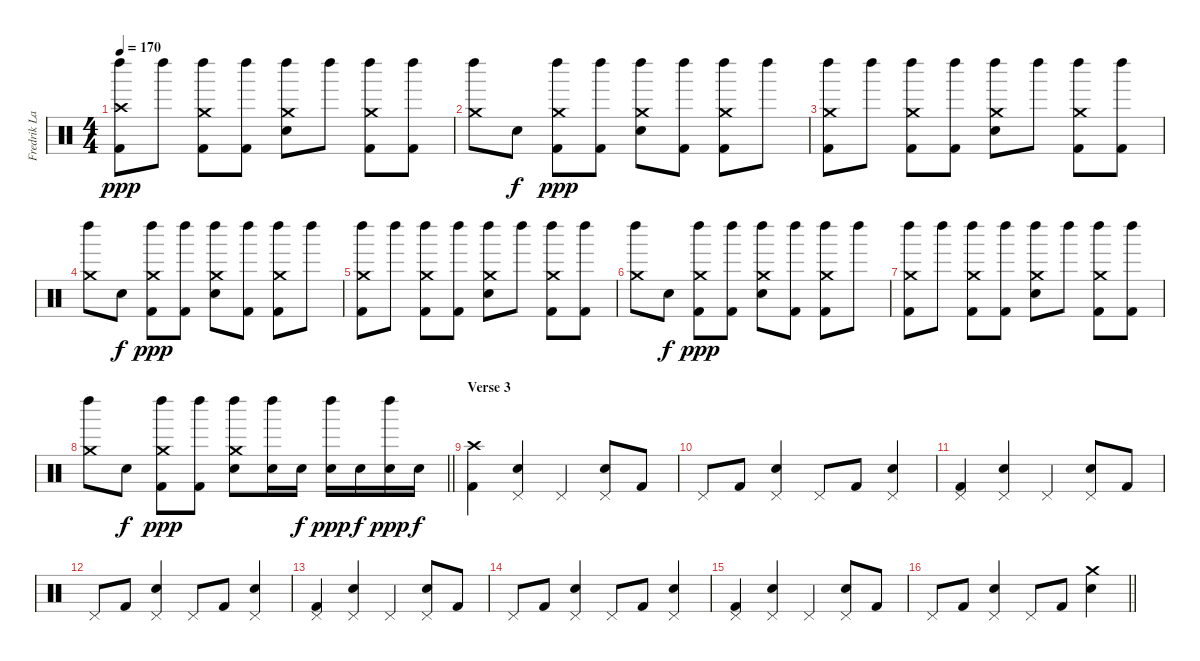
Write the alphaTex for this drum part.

\track ("Fredrik Larzon - Percussion" "Fredrik La") {instrument percussion}
\staff {score}
\articulation defaults
\ts (4 4)
\tempo 170
\clef neutral
\ks c
("Crash high (hit)" "Left Maraca (hit)" "Kick (hit) 2").8{dy ppp} "Left Maraca (hit)".8 ("Crash medium (hit)" "Left Maraca (hit)" "Kick (hit) 2").8 ("Left Maraca (hit)" "Kick (hit) 2").8 ("Crash medium (hit)" "Left Maraca (hit)" "Electric Snare (hit)").8 "Left Maraca (hit)".8 ("Crash medium (hit)" "Left Maraca (hit)" "Kick (hit) 2").8 ("Left Maraca (hit)" "Kick (hit) 2").8 |
("Crash medium (hit)" "Left Maraca (hit)").8 "Electric Snare (hit)".8{dy f} ("Crash medium (hit)" "Left Maraca (hit)" "Kick (hit) 2").8{dy ppp} ("Left Maraca (hit)" "Kick (hit) 2").8 ("Crash medium (hit)" "Left Maraca (hit)" "Electric Snare (hit)").8 ("Left Maraca (hit)" "Kick (hit) 2").8 ("Crash medium (hit)" "Left Maraca (hit)" "Kick (hit) 2").8 "Left Maraca (hit)".8 |
("Crash medium (hit)" "Left Maraca (hit)" "Kick (hit) 2").8 "Left Maraca (hit)".8 ("Crash medium (hit)" "Left Maraca (hit)" "Kick (hit) 2").8 ("Left Maraca (hit)" "Kick (hit) 2").8 ("Crash medium (hit)" "Left Maraca (hit)" "Electric Snare (hit)").8 "Left Maraca (hit)".8 ("Crash medium (hit)" "Left Maraca (hit)" "Kick (hit) 2").8 ("Left Maraca (hit)" "Kick (hit) 2").8 |
("Crash medium (hit)" "Left Maraca (hit)").8 "Electric Snare (hit)".8{dy f} ("Crash medium (hit)" "Left Maraca (hit)" "Kick (hit) 2").8{dy ppp} ("Left Maraca (hit)" "Kick (hit) 2").8 ("Crash medium (hit)" "Left Maraca (hit)" "Electric Snare (hit)").8 ("Left Maraca (hit)" "Kick (hit) 2").8 ("Crash medium (hit)" "Left Maraca (hit)" "Kick (hit) 2").8 "Left Maraca (hit)".8 |
("Crash medium (hit)" "Left Maraca (hit)" "Kick (hit) 2").8 "Left Maraca (hit)".8 ("Crash medium (hit)" "Left Maraca (hit)" "Kick (hit) 2").8 ("Left Maraca (hit)" "Kick (hit) 2").8 ("Crash medium (hit)" "Left Maraca (hit)" "Electric Snare (hit)").8 "Left Maraca (hit)".8 ("Crash medium (hit)" "Left Maraca (hit)" "Kick (hit) 2").8 ("Left Maraca (hit)" "Kick (hit) 2").8 |
("Crash medium (hit)" "Left Maraca (hit)").8 "Electric Snare (hit)".8{dy f} ("Crash medium (hit)" "Left Maraca (hit)" "Kick (hit) 2").8{dy ppp} ("Left Maraca (hit)" "Kick (hit) 2").8 ("Crash medium (hit)" "Left Maraca (hit)" "Electric Snare (hit)").8 ("Left Maraca (hit)" "Kick (hit) 2").8 ("Crash medium (hit)" "Left Maraca (hit)" "Kick (hit) 2").8 "Left Maraca (hit)".8 |
("Crash medium (hit)" "Left Maraca (hit)" "Kick (hit) 2").8 "Left Maraca (hit)".8 ("Crash medium (hit)" "Left Maraca (hit)" "Kick (hit) 2").8 ("Left Maraca (hit)" "Kick (hit) 2").8 ("Crash medium (hit)" "Left Maraca (hit)" "Electric Snare (hit)").8 "Left Maraca (hit)".8 ("Crash medium (hit)" "Left Maraca (hit)" "Kick (hit) 2").8 ("Left Maraca (hit)" "Kick (hit) 2").8 |
\barLineRight lightlight
("Crash medium (hit)" "Left Maraca (hit)").8 "Electric Snare (hit)".8{dy f} ("Crash medium (hit)" "Left Maraca (hit)" "Kick (hit) 2").8{dy ppp} ("Left Maraca (hit)" "Kick (hit) 2").8 ("Crash medium (hit)" "Left Maraca (hit)" "Electric Snare (hit)").8 ("Left Maraca (hit)" "Electric Snare (hit)").16 "Electric Snare (hit)".16{dy f} ("Left Maraca (hit)" "Electric Snare (hit)").16{dy ppp} "Electric Snare (hit)".16{dy f} ("Left Maraca (hit)" "Electric Snare (hit)").16{dy ppp} "Electric Snare (hit)".16{dy f} |
\section ("" "Verse 3")
("Crash high (hit)" "Kick (hit) 2").4 ("Pedal Hi-Hat (hit)" "Electric Snare (hit)").4 "Pedal Hi-Hat (hit)".4 ("Pedal Hi-Hat (hit)" "Electric Snare (hit)").8 "Kick (hit) 2".8 |
"Pedal Hi-Hat (hit)".8 "Kick (hit) 2".8 ("Pedal Hi-Hat (hit)" "Electric Snare (hit)").4 "Pedal Hi-Hat (hit)".8 "Kick (hit) 2".8 ("Pedal Hi-Hat (hit)" "Electric Snare (hit)").4 |
("Pedal Hi-Hat (hit)" "Kick (hit) 2").4 ("Pedal Hi-Hat (hit)" "Electric Snare (hit)").4 "Pedal Hi-Hat (hit)".4 ("Pedal Hi-Hat (hit)" "Electric Snare (hit)").8 "Kick (hit) 2".8 |
"Pedal Hi-Hat (hit)".8 "Kick (hit) 2".8 ("Pedal Hi-Hat (hit)" "Electric Snare (hit)").4 "Pedal Hi-Hat (hit)".8 "Kick (hit) 2".8 ("Pedal Hi-Hat (hit)" "Electric Snare (hit)").4 |
("Pedal Hi-Hat (hit)" "Kick (hit) 2").4 ("Pedal Hi-Hat (hit)" "Electric Snare (hit)").4 "Pedal Hi-Hat (hit)".4 ("Pedal Hi-Hat (hit)" "Electric Snare (hit)").8 "Kick (hit) 2".8 |
"Pedal Hi-Hat (hit)".8 "Kick (hit) 2".8 ("Pedal Hi-Hat (hit)" "Electric Snare (hit)").4 "Pedal Hi-Hat (hit)".8 "Kick (hit) 2".8 ("Pedal Hi-Hat (hit)" "Electric Snare (hit)").4 |
("Pedal Hi-Hat (hit)" "Kick (hit) 2").4 ("Pedal Hi-Hat (hit)" "Electric Snare (hit)").4 "Pedal Hi-Hat (hit)".4 ("Pedal Hi-Hat (hit)" "Electric Snare (hit)").8 "Kick (hit) 2".8 |
\barLineRight lightlight "Pedal Hi-Hat (hit)".8 "Kick (hit) 2".8
("Pedal Hi-Hat (hit)" "Electric Snare (hit)").4 "Pedal Hi-Hat (hit)".8 "Kick (hit) 2".8 ("Crash medium (hit)" "Electric Snare (hit)").4
